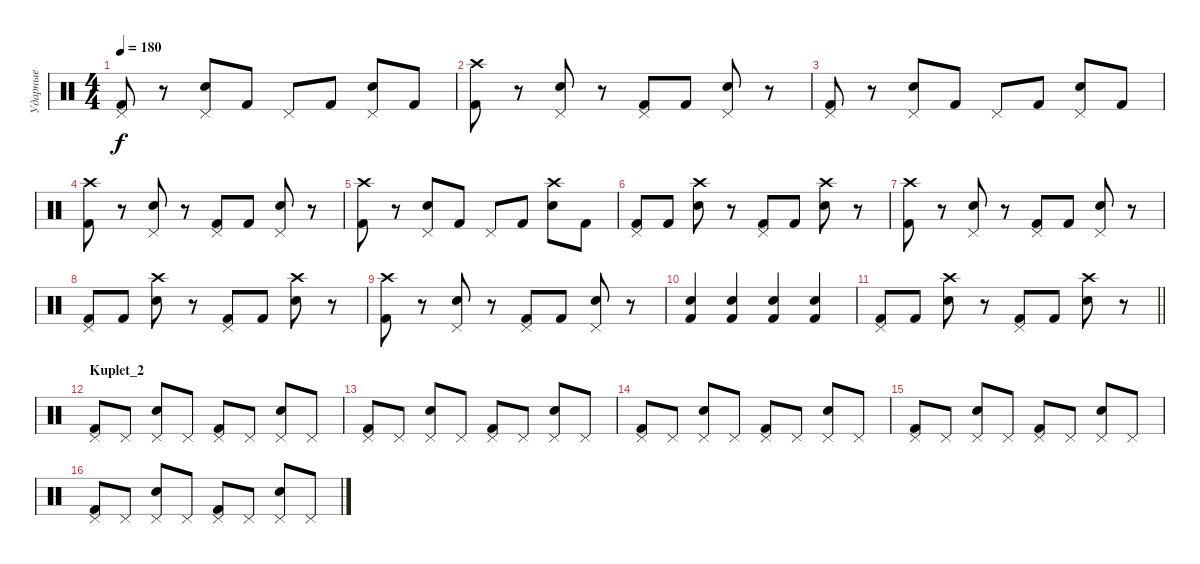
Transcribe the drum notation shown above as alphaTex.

\track ("Ударные" "Ударные") {instrument percussion}
\staff {score}
\articulation defaults
\ts (4 4)
\tempo 180
\clef neutral
\ks c
("Pedal Hi-Hat (hit)" "Kick (hit) 2").8{dy f} r.8 ("Pedal Hi-Hat (hit)" "Electric Snare (hit)").8 "Kick (hit) 2".8 "Pedal Hi-Hat (hit)".8 "Kick (hit) 2".8 ("Pedal Hi-Hat (hit)" "Electric Snare (hit)").8 "Kick (hit) 2".8 |
("Crash high (hit)" "Kick (hit) 2").8 r.8 ("Pedal Hi-Hat (hit)" "Electric Snare (hit)").8 r.8 ("Pedal Hi-Hat (hit)" "Kick (hit) 2").8 "Kick (hit) 2".8 ("Pedal Hi-Hat (hit)" "Electric Snare (hit)").8 r.8 |
("Pedal Hi-Hat (hit)" "Kick (hit) 2").8 r.8 ("Pedal Hi-Hat (hit)" "Electric Snare (hit)").8 "Kick (hit) 2".8 "Pedal Hi-Hat (hit)".8 "Kick (hit) 2".8 ("Pedal Hi-Hat (hit)" "Electric Snare (hit)").8 "Kick (hit) 2".8 |
("Crash high (hit)" "Kick (hit) 2").8 r.8 ("Pedal Hi-Hat (hit)" "Electric Snare (hit)").8 r.8 ("Pedal Hi-Hat (hit)" "Kick (hit) 2").8 "Kick (hit) 2".8 ("Pedal Hi-Hat (hit)" "Electric Snare (hit)").8 r.8 |
("Crash high (hit)" "Kick (hit) 2").8 r.8 ("Pedal Hi-Hat (hit)" "Electric Snare (hit)").8 "Kick (hit) 2".8 "Pedal Hi-Hat (hit)".8 "Kick (hit) 2".8 ("Crash high (hit)" "Electric Snare (hit)").8 "Kick (hit) 2".8 |
("Pedal Hi-Hat (hit)" "Kick (hit) 2").8 "Kick (hit) 2".8 ("Crash high (hit)" "Electric Snare (hit)").8 r.8 ("Pedal Hi-Hat (hit)" "Kick (hit) 2").8 "Kick (hit) 2".8 ("Crash high (hit)" "Electric Snare (hit)").8 r.8 |
("Crash high (hit)" "Kick (hit) 2").8 r.8 ("Pedal Hi-Hat (hit)" "Electric Snare (hit)").8 r.8 ("Pedal Hi-Hat (hit)" "Kick (hit) 2").8 "Kick (hit) 2".8 ("Pedal Hi-Hat (hit)" "Electric Snare (hit)").8 r.8 |
("Pedal Hi-Hat (hit)" "Kick (hit) 2").8 "Kick (hit) 2".8 ("Crash high (hit)" "Electric Snare (hit)").8 r.8 ("Pedal Hi-Hat (hit)" "Kick (hit) 2").8 "Kick (hit) 2".8 ("Crash high (hit)" "Electric Snare (hit)").8 r.8 |
("Crash high (hit)" "Kick (hit) 2").8 r.8 ("Pedal Hi-Hat (hit)" "Electric Snare (hit)").8 r.8 ("Pedal Hi-Hat (hit)" "Kick (hit) 2").8 "Kick (hit) 2".8 ("Pedal Hi-Hat (hit)" "Electric Snare (hit)").8 r.8 |
("Electric Snare (hit)" "Kick (hit) 2").4 ("Electric Snare (hit)" "Kick (hit) 2").4 ("Electric Snare (hit)" "Kick (hit) 2").4 ("Electric Snare (hit)" "Kick (hit) 2").4 |
\barLineRight lightlight
("Pedal Hi-Hat (hit)" "Kick (hit) 2").8 "Kick (hit) 2".8 ("Crash high (hit)" "Electric Snare (hit)").8 r.8 ("Pedal Hi-Hat (hit)" "Kick (hit) 2").8 "Kick (hit) 2".8 ("Crash high (hit)" "Electric Snare (hit)").8 r.8 |
\section ("" "Kuplet_2")
("Pedal Hi-Hat (hit)" "Kick (hit) 2").8 "Pedal Hi-Hat (hit)".8 ("Pedal Hi-Hat (hit)" "Electric Snare (hit)").8 "Pedal Hi-Hat (hit)".8 ("Pedal Hi-Hat (hit)" "Kick (hit) 2").8 "Pedal Hi-Hat (hit)".8 ("Pedal Hi-Hat (hit)" "Electric Snare (hit)").8 "Pedal Hi-Hat (hit)".8 |
("Pedal Hi-Hat (hit)" "Kick (hit) 2").8 "Pedal Hi-Hat (hit)".8 ("Pedal Hi-Hat (hit)" "Electric Snare (hit)").8 "Pedal Hi-Hat (hit)".8 ("Pedal Hi-Hat (hit)" "Kick (hit) 2").8 "Pedal Hi-Hat (hit)".8 ("Pedal Hi-Hat (hit)" "Electric Snare (hit)").8 "Pedal Hi-Hat (hit)".8 |
("Pedal Hi-Hat (hit)" "Kick (hit) 2").8 "Pedal Hi-Hat (hit)".8 ("Pedal Hi-Hat (hit)" "Electric Snare (hit)").8 "Pedal Hi-Hat (hit)".8 ("Pedal Hi-Hat (hit)" "Kick (hit) 2").8 "Pedal Hi-Hat (hit)".8 ("Pedal Hi-Hat (hit)" "Electric Snare (hit)").8 "Pedal Hi-Hat (hit)".8 |
("Pedal Hi-Hat (hit)" "Kick (hit) 2").8 "Pedal Hi-Hat (hit)".8 ("Pedal Hi-Hat (hit)" "Electric Snare (hit)").8 "Pedal Hi-Hat (hit)".8 ("Pedal Hi-Hat (hit)" "Kick (hit) 2").8 "Pedal Hi-Hat (hit)".8 ("Pedal Hi-Hat (hit)" "Electric Snare (hit)").8 "Pedal Hi-Hat (hit)".8 |
("Pedal Hi-Hat (hit)" "Kick (hit) 2").8 "Pedal Hi-Hat (hit)".8 ("Pedal Hi-Hat (hit)" "Electric Snare (hit)").8 "Pedal Hi-Hat (hit)".8 ("Pedal Hi-Hat (hit)" "Kick (hit) 2").8 "Pedal Hi-Hat (hit)".8 ("Pedal Hi-Hat (hit)" "Electric Snare (hit)").8 "Pedal Hi-Hat (hit)".8
